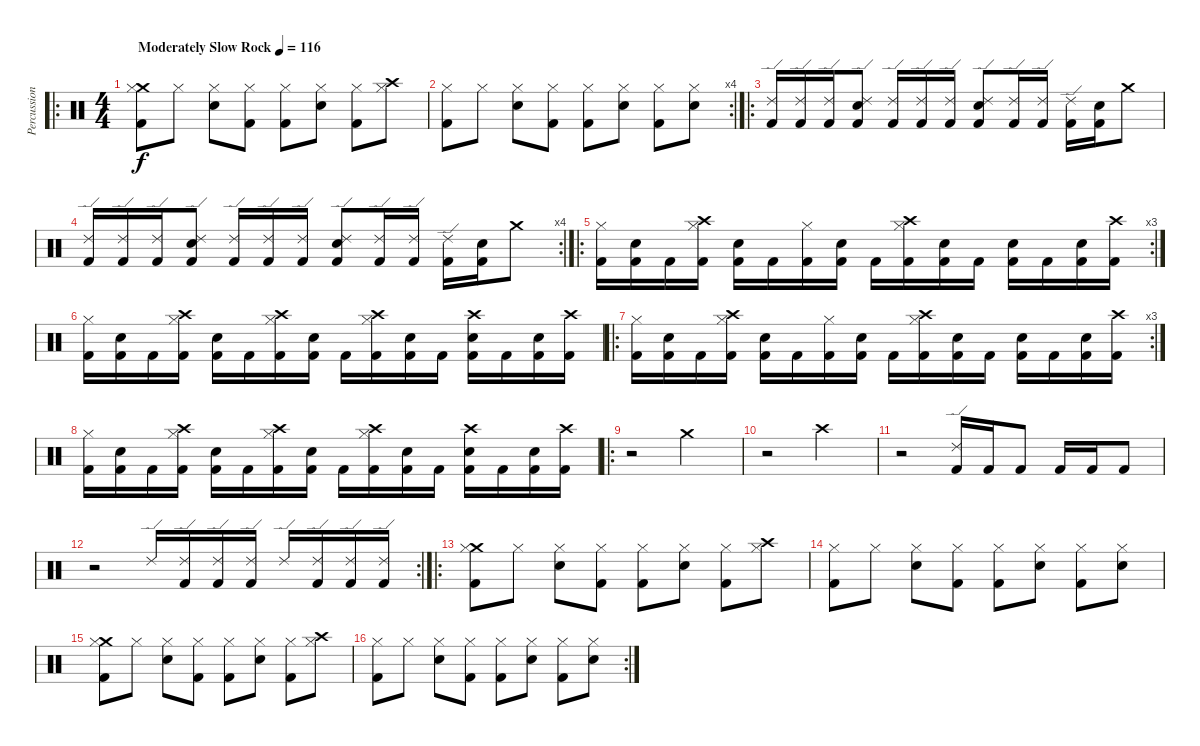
\track ("Percussion" "Percussion") {instrument percussion}
\staff {score}
\articulation defaults
\ro
\ts (4 4)
\tempo (116 "Moderately Slow Rock")
\clef neutral
\ks c
("Kick (hit) 2" "Crash medium (hit)" "Hi-Hat (closed)").8{dy f} "Hi-Hat (closed)".8 ("Electric Snare (hit)" "Hi-Hat (closed)").8 ("Kick (hit) 2" "Hi-Hat (closed)").8 ("Kick (hit) 2" "Hi-Hat (closed)").8 ("Electric Snare (hit)" "Hi-Hat (closed)").8 ("Kick (hit) 2" "Hi-Hat (closed)").8 ("Crash high (hit)" "Hi-Hat (closed)").8 |
\rc 4
("Kick (hit) 2" "Hi-Hat (closed)").8 "Hi-Hat (closed)".8 ("Electric Snare (hit)" "Hi-Hat (closed)").8 ("Kick (hit) 2" "Hi-Hat (closed)").8 ("Kick (hit) 2" "Hi-Hat (closed)").8 ("Electric Snare (hit)" "Hi-Hat (closed)").8 ("Kick (hit) 2" "Hi-Hat (closed)").8 ("Electric Snare (hit)" "Hi-Hat (closed)").8 |
\ro
("Ride (edge) 2" "Kick (hit) 2").16 ("Ride (edge) 2" "Kick (hit) 2").16 ("Ride (edge) 2" "Kick (hit) 2").16 ("Ride (edge) 2" "Electric Snare (hit)" "Kick (hit) 2").8 ("Ride (edge) 2" "Kick (hit) 2").16 ("Ride (edge) 2" "Kick (hit) 2").16 ("Ride (edge) 2" "Kick (hit) 2").16 ("Ride (edge) 2" "Electric Snare (hit)" "Kick (hit) 2").8 ("Ride (edge) 2" "Kick (hit) 2").16 ("Ride (edge) 2" "Kick (hit) 2").16 ("Ride (edge) 2" "Kick (hit) 2").16 ("Electric Snare (hit)" "Kick (hit) 2").16 "Crash medium (hit)".8 |
\rc 4
("Ride (edge) 2" "Kick (hit) 2").16 ("Ride (edge) 2" "Kick (hit) 2").16 ("Ride (edge) 2" "Kick (hit) 2").16 ("Ride (edge) 2" "Electric Snare (hit)" "Kick (hit) 2").8 ("Ride (edge) 2" "Kick (hit) 2").16 ("Ride (edge) 2" "Kick (hit) 2").16 ("Ride (edge) 2" "Kick (hit) 2").16 ("Ride (edge) 2" "Electric Snare (hit)" "Kick (hit) 2").8 ("Ride (edge) 2" "Kick (hit) 2").16 ("Ride (edge) 2" "Kick (hit) 2").16 ("Ride (edge) 2" "Kick (hit) 2").16 ("Electric Snare (hit)" "Kick (hit) 2").16 "Crash medium (hit)".8 |
\ro
\rc 3
("Hi-Hat (closed)" "Kick (hit) 2").16 ("Electric Snare (hit)" "Kick (hit) 2").16 "Kick (hit) 2".16 ("Crash high (hit)" "Hi-Hat (closed)" "Kick (hit) 2").16 ("Electric Snare (hit)" "Kick (hit) 2").16 "Kick (hit) 2".16 ("Hi-Hat (closed)" "Kick (hit) 2").16 ("Electric Snare (hit)" "Kick (hit) 2").16 "Kick (hit) 2".16 ("Crash high (hit)" "Hi-Hat (closed)" "Kick (hit) 2").16 ("Electric Snare (hit)" "Kick (hit) 2").16 "Kick (hit) 2".16 ("Electric Snare (hit)" "Kick (hit) 2").16 "Kick (hit) 2".16 ("Electric Snare (hit)" "Kick (hit) 2").16 ("Crash high (hit)" "Kick (hit) 2").16 |
("Hi-Hat (closed)" "Kick (hit) 2").16 ("Electric Snare (hit)" "Kick (hit) 2").16 "Kick (hit) 2".16 ("Crash high (hit)" "Hi-Hat (closed)" "Kick (hit) 2").16 ("Electric Snare (hit)" "Kick (hit) 2").16 "Kick (hit) 2".16 ("Crash high (hit)" "Hi-Hat (closed)" "Kick (hit) 2").16 ("Electric Snare (hit)" "Kick (hit) 2").16 "Kick (hit) 2".16 ("Crash high (hit)" "Hi-Hat (closed)" "Kick (hit) 2").16 ("Electric Snare (hit)" "Kick (hit) 2").16 "Kick (hit) 2".16 ("Crash high (hit)" "Electric Snare (hit)" "Kick (hit) 2").16 "Kick (hit) 2".16 ("Electric Snare (hit)" "Kick (hit) 2").16 ("Crash high (hit)" "Kick (hit) 2").16 |
\ro
\rc 3
("Hi-Hat (closed)" "Kick (hit) 2").16 ("Electric Snare (hit)" "Kick (hit) 2").16 "Kick (hit) 2".16 ("Crash high (hit)" "Hi-Hat (closed)" "Kick (hit) 2").16 ("Electric Snare (hit)" "Kick (hit) 2").16 "Kick (hit) 2".16 ("Hi-Hat (closed)" "Kick (hit) 2").16 ("Electric Snare (hit)" "Kick (hit) 2").16 "Kick (hit) 2".16 ("Crash high (hit)" "Hi-Hat (closed)" "Kick (hit) 2").16 ("Electric Snare (hit)" "Kick (hit) 2").16 "Kick (hit) 2".16 ("Electric Snare (hit)" "Kick (hit) 2").16 "Kick (hit) 2".16 ("Electric Snare (hit)" "Kick (hit) 2").16 ("Crash high (hit)" "Kick (hit) 2").16 |
("Hi-Hat (closed)" "Kick (hit) 2").16 ("Electric Snare (hit)" "Kick (hit) 2").16 "Kick (hit) 2".16 ("Crash high (hit)" "Hi-Hat (closed)" "Kick (hit) 2").16 ("Electric Snare (hit)" "Kick (hit) 2").16 "Kick (hit) 2".16 ("Crash high (hit)" "Hi-Hat (closed)" "Kick (hit) 2").16 ("Electric Snare (hit)" "Kick (hit) 2").16 "Kick (hit) 2".16 ("Crash high (hit)" "Hi-Hat (closed)" "Kick (hit) 2").16 ("Electric Snare (hit)" "Kick (hit) 2").16 "Kick (hit) 2".16 ("Crash high (hit)" "Electric Snare (hit)" "Kick (hit) 2").16 "Kick (hit) 2".16 ("Electric Snare (hit)" "Kick (hit) 2").16 ("Crash high (hit)" "Kick (hit) 2").16 |
\ro
r.2 "Crash medium (hit)".2 |
r.2 "Crash high (hit)".2 |
r.2 ("Ride (edge) 2" "Kick (hit) 2").16 "Kick (hit) 2".16 "Kick (hit) 2".8 "Kick (hit) 2".16 "Kick (hit) 2".16 "Kick (hit) 2".8 |
\rc 2
r.2 "Ride (edge) 2".16 ("Ride (edge) 2" "Kick (hit) 2").16 ("Ride (edge) 2" "Kick (hit) 2").16 ("Ride (edge) 2" "Kick (hit) 2").16 "Ride (edge) 2".16 ("Ride (edge) 2" "Kick (hit) 2").16 ("Ride (edge) 2" "Kick (hit) 2").16 ("Ride (edge) 2" "Kick (hit) 2").16 |
\ro
("Kick (hit) 2" "Crash medium (hit)" "Hi-Hat (closed)").8 "Hi-Hat (closed)".8 ("Electric Snare (hit)" "Hi-Hat (closed)").8 ("Kick (hit) 2" "Hi-Hat (closed)").8 ("Kick (hit) 2" "Hi-Hat (closed)").8 ("Electric Snare (hit)" "Hi-Hat (closed)").8 ("Kick (hit) 2" "Hi-Hat (closed)").8 ("Crash high (hit)" "Hi-Hat (closed)").8 |
("Kick (hit) 2" "Hi-Hat (closed)").8 "Hi-Hat (closed)".8 ("Electric Snare (hit)" "Hi-Hat (closed)").8 ("Kick (hit) 2" "Hi-Hat (closed)").8 ("Kick (hit) 2" "Hi-Hat (closed)").8 ("Electric Snare (hit)" "Hi-Hat (closed)").8 ("Kick (hit) 2" "Hi-Hat (closed)").8 ("Electric Snare (hit)" "Hi-Hat (closed)").8 |
("Kick (hit) 2" "Crash medium (hit)" "Hi-Hat (closed)").8 "Hi-Hat (closed)".8 ("Electric Snare (hit)" "Hi-Hat (closed)").8 ("Kick (hit) 2" "Hi-Hat (closed)").8 ("Kick (hit) 2" "Hi-Hat (closed)").8 ("Electric Snare (hit)" "Hi-Hat (closed)").8 ("Kick (hit) 2" "Hi-Hat (closed)").8 ("Crash high (hit)" "Hi-Hat (closed)").8 |
\rc 2
("Kick (hit) 2" "Hi-Hat (closed)").8 "Hi-Hat (closed)".8 ("Electric Snare (hit)" "Hi-Hat (closed)").8 ("Kick (hit) 2" "Hi-Hat (closed)").8 ("Kick (hit) 2" "Hi-Hat (closed)").8 ("Electric Snare (hit)" "Hi-Hat (closed)").8 ("Kick (hit) 2" "Hi-Hat (closed)").8 ("Electric Snare (hit)" "Hi-Hat (closed)").8
